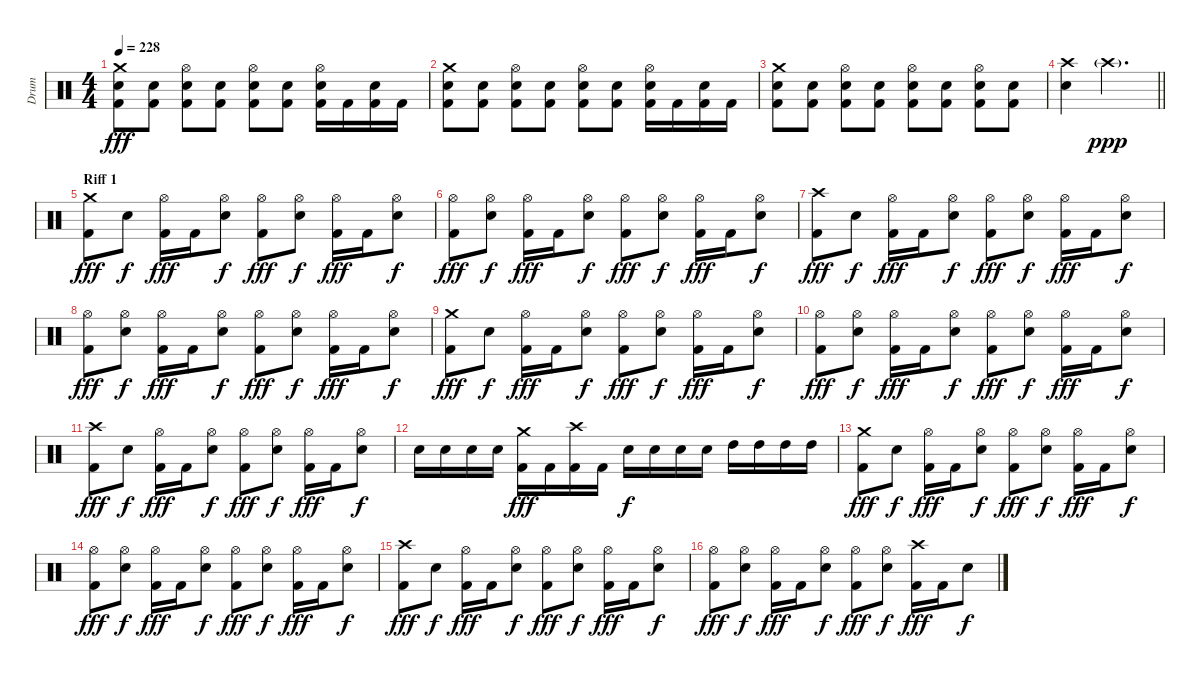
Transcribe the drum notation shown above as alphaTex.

\track ("Drum" "Drum") {instrument percussion}
\staff {score}
\articulation defaults
\ts (4 4)
\tempo 228
\clef neutral
\ks c
("Crash medium (hit)" "Snare (hit) 2" "Kick (hit) 2").8{dy fff} ("Snare (hit) 2" "Kick (hit) 2").8 ("Hi-Hat (open)" "Snare (hit) 2" "Kick (hit) 2").8 ("Snare (hit) 2" "Kick (hit) 2").8 ("Hi-Hat (open)" "Snare (hit) 2" "Kick (hit) 2").8 ("Snare (hit) 2" "Kick (hit) 2").8 ("Hi-Hat (open)" "Snare (hit) 2" "Kick (hit) 2").16 "Kick (hit) 2".16 ("Snare (hit) 2" "Kick (hit) 2").16 "Kick (hit) 2".16 |
("Crash medium (hit)" "Snare (hit) 2" "Kick (hit) 2").8 ("Snare (hit) 2" "Kick (hit) 2").8 ("Hi-Hat (open)" "Snare (hit) 2" "Kick (hit) 2").8 ("Snare (hit) 2" "Kick (hit) 2").8 ("Hi-Hat (open)" "Snare (hit) 2" "Kick (hit) 2").8 ("Snare (hit) 2" "Kick (hit) 2").8 ("Hi-Hat (open)" "Snare (hit) 2" "Kick (hit) 2").16 "Kick (hit) 2".16 ("Snare (hit) 2" "Kick (hit) 2").16 "Kick (hit) 2".16 |
("Crash medium (hit)" "Snare (hit) 2" "Kick (hit) 2").8 ("Snare (hit) 2" "Kick (hit) 2").8 ("Hi-Hat (open)" "Snare (hit) 2" "Kick (hit) 2").8 ("Snare (hit) 2" "Kick (hit) 2").8 ("Hi-Hat (open)" "Snare (hit) 2" "Kick (hit) 2").8 ("Snare (hit) 2" "Kick (hit) 2").8 ("Hi-Hat (open)" "Snare (hit) 2" "Kick (hit) 2").8 ("Snare (hit) 2" "Kick (hit) 2").8 |
\barLineRight lightlight
("Crash high (hit)" "Snare (hit) 2").4 "Crash high (hit)"{g}.2{d dy ppp} |
\section ("" "Riff 1")
("Crash medium (hit)" "Kick (hit) 2").8{dy fff} "Snare (hit) 2".8{dy f} ("Hi-Hat (open)" "Kick (hit) 2").16{dy fff} "Kick (hit) 2".16 ("Hi-Hat (open)" "Snare (hit) 2").8{dy f} ("Hi-Hat (open)" "Kick (hit) 2").8{dy fff} ("Hi-Hat (open)" "Snare (hit) 2").8{dy f} ("Hi-Hat (open)" "Kick (hit) 2").16{dy fff} "Kick (hit) 2".16 ("Hi-Hat (open)" "Snare (hit) 2").8{dy f} |
("Hi-Hat (open)" "Kick (hit) 2").8{dy fff} ("Hi-Hat (open)" "Snare (hit) 2").8{dy f} ("Hi-Hat (open)" "Kick (hit) 2").16{dy fff} "Kick (hit) 2".16 ("Hi-Hat (open)" "Snare (hit) 2").8{dy f} ("Hi-Hat (open)" "Kick (hit) 2").8{dy fff} ("Hi-Hat (open)" "Snare (hit) 2").8{dy f} ("Hi-Hat (open)" "Kick (hit) 2").16{dy fff} "Kick (hit) 2".16 ("Hi-Hat (open)" "Snare (hit) 2").8{dy f} |
("Crash high (hit)" "Kick (hit) 2").8{dy fff} "Snare (hit) 2".8{dy f} ("Hi-Hat (open)" "Kick (hit) 2").16{dy fff} "Kick (hit) 2".16 ("Hi-Hat (open)" "Snare (hit) 2").8{dy f} ("Hi-Hat (open)" "Kick (hit) 2").8{dy fff} ("Hi-Hat (open)" "Snare (hit) 2").8{dy f} ("Hi-Hat (open)" "Kick (hit) 2").16{dy fff} "Kick (hit) 2".16 ("Hi-Hat (open)" "Snare (hit) 2").8{dy f} |
("Hi-Hat (open)" "Kick (hit) 2").8{dy fff} ("Hi-Hat (open)" "Snare (hit) 2").8{dy f} ("Hi-Hat (open)" "Kick (hit) 2").16{dy fff} "Kick (hit) 2".16 ("Hi-Hat (open)" "Snare (hit) 2").8{dy f} ("Hi-Hat (open)" "Kick (hit) 2").8{dy fff} ("Hi-Hat (open)" "Snare (hit) 2").8{dy f} ("Hi-Hat (open)" "Kick (hit) 2").16{dy fff} "Kick (hit) 2".16 ("Hi-Hat (open)" "Snare (hit) 2").8{dy f} |
("Crash medium (hit)" "Kick (hit) 2").8{dy fff} "Snare (hit) 2".8{dy f} ("Hi-Hat (open)" "Kick (hit) 2").16{dy fff} "Kick (hit) 2".16 ("Hi-Hat (open)" "Snare (hit) 2").8{dy f} ("Hi-Hat (open)" "Kick (hit) 2").8{dy fff} ("Hi-Hat (open)" "Snare (hit) 2").8{dy f} ("Hi-Hat (open)" "Kick (hit) 2").16{dy fff} "Kick (hit) 2".16 ("Hi-Hat (open)" "Snare (hit) 2").8{dy f} |
("Hi-Hat (open)" "Kick (hit) 2").8{dy fff} ("Hi-Hat (open)" "Snare (hit) 2").8{dy f} ("Hi-Hat (open)" "Kick (hit) 2").16{dy fff} "Kick (hit) 2".16 ("Hi-Hat (open)" "Snare (hit) 2").8{dy f} ("Hi-Hat (open)" "Kick (hit) 2").8{dy fff} ("Hi-Hat (open)" "Snare (hit) 2").8{dy f} ("Hi-Hat (open)" "Kick (hit) 2").16{dy fff} "Kick (hit) 2".16 ("Hi-Hat (open)" "Snare (hit) 2").8{dy f} |
("Crash high (hit)" "Kick (hit) 2").8{dy fff} "Snare (hit) 2".8{dy f} ("Hi-Hat (open)" "Kick (hit) 2").16{dy fff} "Kick (hit) 2".16 ("Hi-Hat (open)" "Snare (hit) 2").8{dy f} ("Hi-Hat (open)" "Kick (hit) 2").8{dy fff} ("Hi-Hat (open)" "Snare (hit) 2").8{dy f} ("Hi-Hat (open)" "Kick (hit) 2").16{dy fff} "Kick (hit) 2".16 ("Hi-Hat (open)" "Snare (hit) 2").8{dy f} |
"Snare (hit) 2".16 "Snare (hit) 2".16 "Snare (hit) 2".16 "Snare (hit) 2".16 ("Crash medium (hit)" "Kick (hit) 2").16{dy fff} "Kick (hit) 2".16 ("Crash high (hit)" "Kick (hit) 2").16 "Kick (hit) 2".16 "Snare (hit) 2".16{dy f} "Snare (hit) 2".16 "Snare (hit) 2".16 "Snare (hit) 2".16 "High Tom (hit)".16 "High Tom (hit)".16 "High Tom (hit)".16 "High Tom (hit)".16 |
("Crash medium (hit)" "Kick (hit) 2").8{dy fff} "Snare (hit) 2".8{dy f} ("Hi-Hat (open)" "Kick (hit) 2").16{dy fff} "Kick (hit) 2".16 ("Hi-Hat (open)" "Snare (hit) 2").8{dy f} ("Hi-Hat (open)" "Kick (hit) 2").8{dy fff} ("Hi-Hat (open)" "Snare (hit) 2").8{dy f} ("Hi-Hat (open)" "Kick (hit) 2").16{dy fff} "Kick (hit) 2".16 ("Hi-Hat (open)" "Snare (hit) 2").8{dy f} |
("Hi-Hat (open)" "Kick (hit) 2").8{dy fff} ("Hi-Hat (open)" "Snare (hit) 2").8{dy f} ("Hi-Hat (open)" "Kick (hit) 2").16{dy fff} "Kick (hit) 2".16 ("Hi-Hat (open)" "Snare (hit) 2").8{dy f} ("Hi-Hat (open)" "Kick (hit) 2").8{dy fff} ("Hi-Hat (open)" "Snare (hit) 2").8{dy f} ("Hi-Hat (open)" "Kick (hit) 2").16{dy fff} "Kick (hit) 2".16 ("Hi-Hat (open)" "Snare (hit) 2").8{dy f} |
("Crash high (hit)" "Kick (hit) 2").8{dy fff} "Snare (hit) 2".8{dy f} ("Hi-Hat (open)" "Kick (hit) 2").16{dy fff} "Kick (hit) 2".16 ("Hi-Hat (open)" "Snare (hit) 2").8{dy f} ("Hi-Hat (open)" "Kick (hit) 2").8{dy fff} ("Hi-Hat (open)" "Snare (hit) 2").8{dy f} ("Hi-Hat (open)" "Kick (hit) 2").16{dy fff} "Kick (hit) 2".16 ("Hi-Hat (open)" "Snare (hit) 2").8{dy f} |
("Hi-Hat (open)" "Kick (hit) 2").8{dy fff} ("Hi-Hat (open)" "Snare (hit) 2").8{dy f} ("Hi-Hat (open)" "Kick (hit) 2").16{dy fff} "Kick (hit) 2".16 ("Hi-Hat (open)" "Snare (hit) 2").8{dy f} ("Hi-Hat (open)" "Kick (hit) 2").8{dy fff} ("Hi-Hat (open)" "Snare (hit) 2").8{dy f} ("Crash high (hit)" "Kick (hit) 2").16{dy fff} "Kick (hit) 2".16 "Snare (hit) 2".8{dy f}
